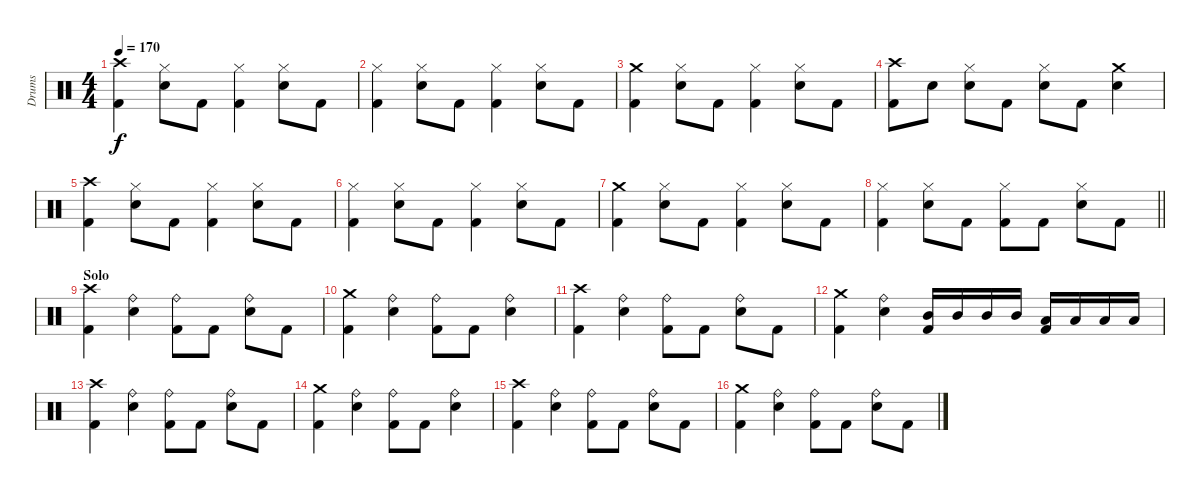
\track ("Drums" "Drums") {instrument percussion}
\staff {score}
\articulation defaults
\ts (4 4)
\tempo 170
\clef neutral
\ks c
("Kick (hit) 2" "Crash high (hit)").4{dy f} ("Hi-Hat (closed)" "Electric Snare (hit)").8 "Kick (hit) 2".8 ("Kick (hit) 2" "Hi-Hat (closed)").4 ("Hi-Hat (closed)" "Electric Snare (hit)").8 "Kick (hit) 2".8 |
("Kick (hit) 2" "Hi-Hat (closed)").4 ("Hi-Hat (closed)" "Electric Snare (hit)").8 "Kick (hit) 2".8 ("Kick (hit) 2" "Hi-Hat (closed)").4 ("Hi-Hat (closed)" "Electric Snare (hit)").8 "Kick (hit) 2".8 |
("Kick (hit) 2" "Crash medium (hit)").4 ("Hi-Hat (closed)" "Electric Snare (hit)").8 "Kick (hit) 2".8 ("Kick (hit) 2" "Hi-Hat (closed)").4 ("Hi-Hat (closed)" "Electric Snare (hit)").8 "Kick (hit) 2".8 |
("Kick (hit) 2" "Crash high (hit)").8 "Electric Snare (hit)".8 ("Hi-Hat (closed)" "Electric Snare (hit)").8 "Kick (hit) 2".8 ("Hi-Hat (closed)" "Electric Snare (hit)").8 "Kick (hit) 2".8 ("Crash medium (hit)" "Electric Snare (hit)").4 |
("Kick (hit) 2" "Crash high (hit)").4 ("Hi-Hat (closed)" "Electric Snare (hit)").8 "Kick (hit) 2".8 ("Kick (hit) 2" "Hi-Hat (closed)").4 ("Hi-Hat (closed)" "Electric Snare (hit)").8 "Kick (hit) 2".8 |
("Kick (hit) 2" "Hi-Hat (closed)").4 ("Hi-Hat (closed)" "Electric Snare (hit)").8 "Kick (hit) 2".8 ("Kick (hit) 2" "Hi-Hat (closed)").4 ("Hi-Hat (closed)" "Electric Snare (hit)").8 "Kick (hit) 2".8 |
("Kick (hit) 2" "Crash medium (hit)").4 ("Hi-Hat (closed)" "Electric Snare (hit)").8 "Kick (hit) 2".8 ("Kick (hit) 2" "Hi-Hat (closed)").4 ("Hi-Hat (closed)" "Electric Snare (hit)").8 "Kick (hit) 2".8 |
\barLineRight lightlight
("Kick (hit) 2" "Hi-Hat (closed)").4 ("Hi-Hat (closed)" "Electric Snare (hit)").8 "Kick (hit) 2".8 ("Kick (hit) 2" "Hi-Hat (closed)").8 "Kick (hit) 2".8 ("Hi-Hat (closed)" "Electric Snare (hit)").8 "Kick (hit) 2".8 |
\section ("" "Solo")
("Kick (hit) 2" "Crash high (hit)").4 ("Ride (bell)" "Electric Snare (hit)").4 ("Kick (hit) 2" "Ride (bell)").8 "Kick (hit) 2".8 ("Ride (bell)" "Electric Snare (hit)").8 "Kick (hit) 2".8 |
("Kick (hit) 2" "Crash medium (hit)").4 ("Ride (bell)" "Electric Snare (hit)").4 ("Kick (hit) 2" "Ride (bell)").8 "Kick (hit) 2".8 ("Ride (bell)" "Electric Snare (hit)").4 |
("Kick (hit) 2" "Crash high (hit)").4 ("Ride (bell)" "Electric Snare (hit)").4 ("Kick (hit) 2" "Ride (bell)").8 "Kick (hit) 2".8 ("Ride (bell)" "Electric Snare (hit)").8 "Kick (hit) 2".8 |
("Kick (hit) 2" "Crash medium (hit)").4 ("Ride (bell)" "Electric Snare (hit)").4 ("Kick (hit) 2" "Mid Tom (hit)").16 "Mid Tom (hit)".16 "Mid Tom (hit)".16 "Mid Tom (hit)".16 ("Kick (hit) 2" "Low Tom (hit)").16 "Low Tom (hit)".16 "Low Tom (hit)".16 "Low Tom (hit)".16 |
("Kick (hit) 2" "Crash high (hit)").4 ("Ride (bell)" "Electric Snare (hit)").4 ("Kick (hit) 2" "Ride (bell)").8 "Kick (hit) 2".8 ("Ride (bell)" "Electric Snare (hit)").8 "Kick (hit) 2".8 |
("Kick (hit) 2" "Crash medium (hit)").4 ("Ride (bell)" "Electric Snare (hit)").4 ("Kick (hit) 2" "Ride (bell)").8 "Kick (hit) 2".8 ("Ride (bell)" "Electric Snare (hit)").4 |
("Kick (hit) 2" "Crash high (hit)").4 ("Ride (bell)" "Electric Snare (hit)").4 ("Kick (hit) 2" "Ride (bell)").8 "Kick (hit) 2".8 ("Ride (bell)" "Electric Snare (hit)").8 "Kick (hit) 2".8 |
("Kick (hit) 2" "Crash medium (hit)").4 ("Ride (bell)" "Electric Snare (hit)").4 ("Kick (hit) 2" "Ride (bell)").8 "Kick (hit) 2".8 ("Ride (bell)" "Electric Snare (hit)").8 "Kick (hit) 2".8
